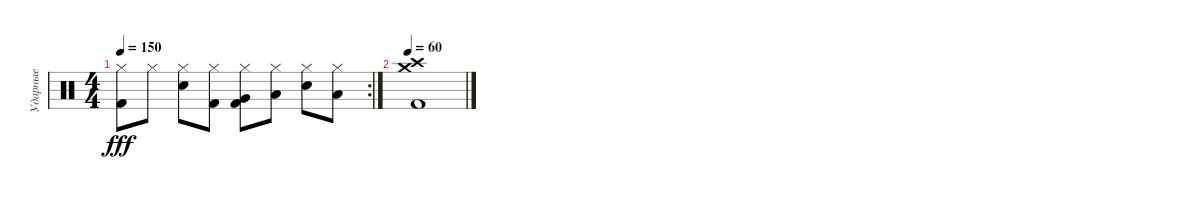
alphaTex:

\track ("Ударные" "Ударные") {instrument percussion}
\staff {score}
\articulation defaults
\rc 2
\ts (4 4)
\tempo 150
\clef neutral
\ks c
("Kick (hit) 2" "Hi-Hat (closed)").8{dy fff} "Hi-Hat (closed)".8 ("Electric Snare (hit)" "Hi-Hat (closed)").8 ("Kick (hit) 2" "Hi-Hat (closed)").8 ("Hi-Hat (closed)" "Kick (hit) 2" "Very Low Tom (hit)").8 ("Hi-Hat (closed)" "Low Tom (hit)").8 ("Electric Snare (hit)" "Hi-Hat (closed)").8 ("Hi-Hat (closed)" "Low Floor Tom (hit)").8 |
\tempo 60
("Kick (hit) 2" "Crash high (hit)" "Crash medium (hit)").1
